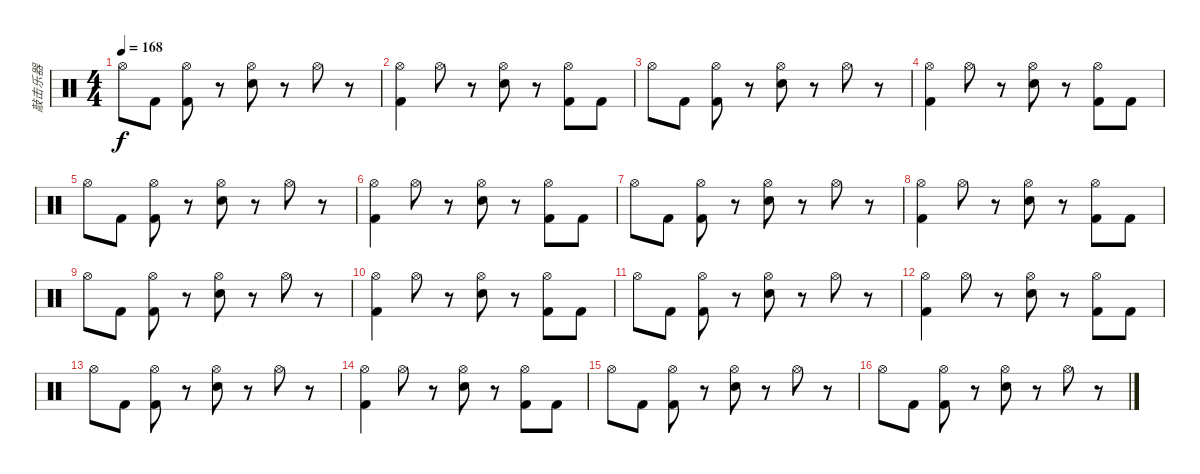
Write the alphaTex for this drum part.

\track ("敲击乐器" "敲击乐器") {instrument percussion}
\staff {score}
\articulation defaults
\ts (4 4)
\tempo 168
\clef neutral
\ks c "Hi-Hat (open)".8{dy f} "Kick (hit) 2".8
("Hi-Hat (open)" "Kick (hit) 2").8 r.8 ("Hi-Hat (open)" "Snare (hit) 2").8 r.8 "Hi-Hat (open)".8 r.8 |
("Hi-Hat (open)" "Kick (hit) 2").4 "Hi-Hat (open)".8 r.8 ("Hi-Hat (open)" "Snare (hit) 2").8 r.8 ("Hi-Hat (open)" "Kick (hit) 2").8 "Kick (hit) 2".8 |
"Hi-Hat (open)".8 "Kick (hit) 2".8 ("Hi-Hat (open)" "Kick (hit) 2").8 r.8 ("Hi-Hat (open)" "Snare (hit) 2").8 r.8 "Hi-Hat (open)".8 r.8 |
("Hi-Hat (open)" "Kick (hit) 2").4 "Hi-Hat (open)".8 r.8 ("Hi-Hat (open)" "Snare (hit) 2").8 r.8 ("Hi-Hat (open)" "Kick (hit) 2").8 "Kick (hit) 2".8 |
"Hi-Hat (open)".8 "Kick (hit) 2".8 ("Hi-Hat (open)" "Kick (hit) 2").8 r.8 ("Hi-Hat (open)" "Snare (hit) 2").8 r.8 "Hi-Hat (open)".8 r.8 |
("Hi-Hat (open)" "Kick (hit) 2").4 "Hi-Hat (open)".8 r.8 ("Hi-Hat (open)" "Snare (hit) 2").8 r.8 ("Hi-Hat (open)" "Kick (hit) 2").8 "Kick (hit) 2".8 |
"Hi-Hat (open)".8 "Kick (hit) 2".8 ("Hi-Hat (open)" "Kick (hit) 2").8 r.8 ("Hi-Hat (open)" "Snare (hit) 2").8 r.8 "Hi-Hat (open)".8 r.8 |
("Hi-Hat (open)" "Kick (hit) 2").4 "Hi-Hat (open)".8 r.8 ("Hi-Hat (open)" "Snare (hit) 2").8 r.8 ("Hi-Hat (open)" "Kick (hit) 2").8 "Kick (hit) 2".8 |
"Hi-Hat (open)".8 "Kick (hit) 2".8 ("Hi-Hat (open)" "Kick (hit) 2").8 r.8 ("Hi-Hat (open)" "Snare (hit) 2").8 r.8 "Hi-Hat (open)".8 r.8 |
("Hi-Hat (open)" "Kick (hit) 2").4 "Hi-Hat (open)".8 r.8 ("Hi-Hat (open)" "Snare (hit) 2").8 r.8 ("Hi-Hat (open)" "Kick (hit) 2").8 "Kick (hit) 2".8 |
"Hi-Hat (open)".8 "Kick (hit) 2".8 ("Hi-Hat (open)" "Kick (hit) 2").8 r.8 ("Hi-Hat (open)" "Snare (hit) 2").8 r.8 "Hi-Hat (open)".8 r.8 |
("Hi-Hat (open)" "Kick (hit) 2").4 "Hi-Hat (open)".8 r.8 ("Hi-Hat (open)" "Snare (hit) 2").8 r.8 ("Hi-Hat (open)" "Kick (hit) 2").8 "Kick (hit) 2".8 |
"Hi-Hat (open)".8 "Kick (hit) 2".8 ("Hi-Hat (open)" "Kick (hit) 2").8 r.8 ("Hi-Hat (open)" "Snare (hit) 2").8 r.8 "Hi-Hat (open)".8 r.8 |
("Hi-Hat (open)" "Kick (hit) 2").4 "Hi-Hat (open)".8 r.8 ("Hi-Hat (open)" "Snare (hit) 2").8 r.8 ("Hi-Hat (open)" "Kick (hit) 2").8 "Kick (hit) 2".8 |
"Hi-Hat (open)".8 "Kick (hit) 2".8 ("Hi-Hat (open)" "Kick (hit) 2").8 r.8 ("Hi-Hat (open)" "Snare (hit) 2").8 r.8 "Hi-Hat (open)".8 r.8 |
"Hi-Hat (open)".8 "Kick (hit) 2".8 ("Hi-Hat (open)" "Kick (hit) 2").8 r.8 ("Hi-Hat (open)" "Snare (hit) 2").8 r.8 "Hi-Hat (open)".8 r.8
